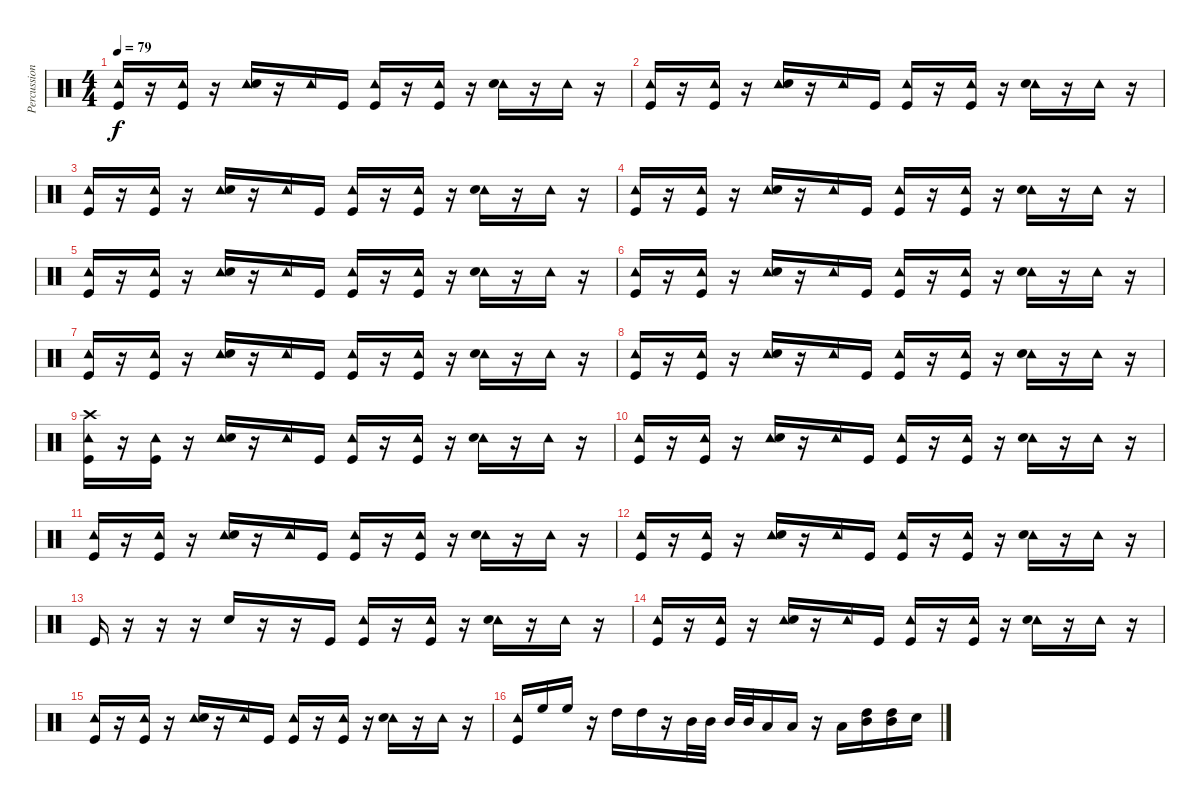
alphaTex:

\track ("Percussions" "Percussion") {instrument percussion}
\staff {score}
\articulation defaults
\ts (4 4)
\tempo 79
\clef neutral
\ks c
("Tambourine (hit)" "Kick (hit)").16{dy f} r.16 ("Tambourine (hit)" "Kick (hit)").16 r.16 ("Tambourine (hit)" "Electric Snare (hit)").16 r.16 "Tambourine (hit)".16 "Kick (hit)".16 ("Tambourine (hit)" "Kick (hit)").16 r.16 ("Tambourine (hit)" "Kick (hit)").16 r.16 ("Tambourine (hit)" "Electric Snare (hit)").16 r.16 "Tambourine (hit)".16 r.16 |
("Tambourine (hit)" "Kick (hit)").16 r.16 ("Tambourine (hit)" "Kick (hit)").16 r.16 ("Tambourine (hit)" "Electric Snare (hit)").16 r.16 "Tambourine (hit)".16 "Kick (hit)".16 ("Tambourine (hit)" "Kick (hit)").16 r.16 ("Tambourine (hit)" "Kick (hit)").16 r.16 ("Tambourine (hit)" "Electric Snare (hit)").16 r.16 "Tambourine (hit)".16 r.16 |
("Tambourine (hit)" "Kick (hit)").16 r.16 ("Tambourine (hit)" "Kick (hit)").16 r.16 ("Tambourine (hit)" "Electric Snare (hit)").16 r.16 "Tambourine (hit)".16 "Kick (hit)".16 ("Tambourine (hit)" "Kick (hit)").16 r.16 ("Tambourine (hit)" "Kick (hit)").16 r.16 ("Tambourine (hit)" "Electric Snare (hit)").16 r.16 "Tambourine (hit)".16 r.16 |
("Tambourine (hit)" "Kick (hit)").16 r.16 ("Tambourine (hit)" "Kick (hit)").16 r.16 ("Tambourine (hit)" "Electric Snare (hit)").16 r.16 "Tambourine (hit)".16 "Kick (hit)".16 ("Tambourine (hit)" "Kick (hit)").16 r.16 ("Tambourine (hit)" "Kick (hit)").16 r.16 ("Tambourine (hit)" "Electric Snare (hit)").16 r.16 "Tambourine (hit)".16 r.16 |
("Tambourine (hit)" "Kick (hit)").16 r.16 ("Tambourine (hit)" "Kick (hit)").16 r.16 ("Tambourine (hit)" "Electric Snare (hit)").16 r.16 "Tambourine (hit)".16 "Kick (hit)".16 ("Tambourine (hit)" "Kick (hit)").16 r.16 ("Tambourine (hit)" "Kick (hit)").16 r.16 ("Tambourine (hit)" "Electric Snare (hit)").16 r.16 "Tambourine (hit)".16 r.16 |
("Tambourine (hit)" "Kick (hit)").16 r.16 ("Tambourine (hit)" "Kick (hit)").16 r.16 ("Tambourine (hit)" "Electric Snare (hit)").16 r.16 "Tambourine (hit)".16 "Kick (hit)".16 ("Tambourine (hit)" "Kick (hit)").16 r.16 ("Tambourine (hit)" "Kick (hit)").16 r.16 ("Tambourine (hit)" "Electric Snare (hit)").16 r.16 "Tambourine (hit)".16 r.16 |
("Tambourine (hit)" "Kick (hit)").16 r.16 ("Tambourine (hit)" "Kick (hit)").16 r.16 ("Tambourine (hit)" "Electric Snare (hit)").16 r.16 "Tambourine (hit)".16 "Kick (hit)".16 ("Tambourine (hit)" "Kick (hit)").16 r.16 ("Tambourine (hit)" "Kick (hit)").16 r.16 ("Tambourine (hit)" "Electric Snare (hit)").16 r.16 "Tambourine (hit)".16 r.16 |
("Tambourine (hit)" "Kick (hit)").16 r.16 ("Tambourine (hit)" "Kick (hit)").16 r.16 ("Tambourine (hit)" "Electric Snare (hit)").16 r.16 "Tambourine (hit)".16 "Kick (hit)".16 ("Tambourine (hit)" "Kick (hit)").16 r.16 ("Tambourine (hit)" "Kick (hit)").16 r.16 ("Tambourine (hit)" "Electric Snare (hit)").16 r.16 "Tambourine (hit)".16 r.16 |
("Tambourine (hit)" "Crash high (hit)" "Kick (hit)").16 r.16 ("Tambourine (hit)" "Kick (hit)").16 r.16 ("Tambourine (hit)" "Electric Snare (hit)").16 r.16 "Tambourine (hit)".16 "Kick (hit)".16 ("Tambourine (hit)" "Kick (hit)").16 r.16 ("Tambourine (hit)" "Kick (hit)").16 r.16 ("Tambourine (hit)" "Electric Snare (hit)").16 r.16 "Tambourine (hit)".16 r.16 |
("Tambourine (hit)" "Kick (hit)").16 r.16 ("Tambourine (hit)" "Kick (hit)").16 r.16 ("Tambourine (hit)" "Electric Snare (hit)").16 r.16 "Tambourine (hit)".16 "Kick (hit)".16 ("Tambourine (hit)" "Kick (hit)").16 r.16 ("Tambourine (hit)" "Kick (hit)").16 r.16 ("Tambourine (hit)" "Electric Snare (hit)").16 r.16 "Tambourine (hit)".16 r.16 |
("Tambourine (hit)" "Kick (hit)").16 r.16 ("Tambourine (hit)" "Kick (hit)").16 r.16 ("Tambourine (hit)" "Electric Snare (hit)").16 r.16 "Tambourine (hit)".16 "Kick (hit)".16 ("Tambourine (hit)" "Kick (hit)").16 r.16 ("Tambourine (hit)" "Kick (hit)").16 r.16 ("Tambourine (hit)" "Electric Snare (hit)").16 r.16 "Tambourine (hit)".16 r.16 |
("Tambourine (hit)" "Kick (hit)").16 r.16 ("Tambourine (hit)" "Kick (hit)").16 r.16 ("Tambourine (hit)" "Electric Snare (hit)").16 r.16 "Tambourine (hit)".16 "Kick (hit)".16 ("Tambourine (hit)" "Kick (hit)").16 r.16 ("Tambourine (hit)" "Kick (hit)").16 r.16 ("Tambourine (hit)" "Electric Snare (hit)").16 r.16 "Tambourine (hit)".16 r.16 |
"Kick (hit)".16 r.16 r.16 r.16 "Electric Snare (hit)".16 r.16 r.16 "Kick (hit)".16 ("Tambourine (hit)" "Kick (hit)").16 r.16 ("Tambourine (hit)" "Kick (hit)").16 r.16 ("Tambourine (hit)" "Electric Snare (hit)").16 r.16 "Tambourine (hit)".16 r.16 |
("Tambourine (hit)" "Kick (hit)").16 r.16 ("Tambourine (hit)" "Kick (hit)").16 r.16 ("Tambourine (hit)" "Electric Snare (hit)").16 r.16 "Tambourine (hit)".16 "Kick (hit)".16 ("Tambourine (hit)" "Kick (hit)").16 r.16 ("Tambourine (hit)" "Kick (hit)").16 r.16 ("Tambourine (hit)" "Electric Snare (hit)").16 r.16 "Tambourine (hit)".16 r.16 |
("Tambourine (hit)" "Kick (hit)").16 r.16 ("Tambourine (hit)" "Kick (hit)").16 r.16 ("Tambourine (hit)" "Electric Snare (hit)").16 r.16 "Tambourine (hit)".16 "Kick (hit)".16 ("Tambourine (hit)" "Kick (hit)").16 r.16 ("Tambourine (hit)" "Kick (hit)").16 r.16 ("Tambourine (hit)" "Electric Snare (hit)").16 r.16 "Tambourine (hit)".16 r.16 |
("Tambourine (hit)" "Kick (hit)").16 "High Floor Tom (hit)".16 "High Floor Tom (hit)".16 r.16 "High Tom (hit)".16 "High Tom (hit)".16 r.16 "Mid Tom (hit)".32 "Mid Tom (hit)".32 "Mid Tom (hit)".32 "Mid Tom (hit)".32 "Low Tom (hit)".16 "Low Tom (hit)".16 r.16 "Low Floor Tom (hit)".16 ("Mid Tom (hit)" "High Tom (hit)").16 ("High Tom (hit)" "Mid Tom (hit)").16 "Electric Snare (hit)".16
